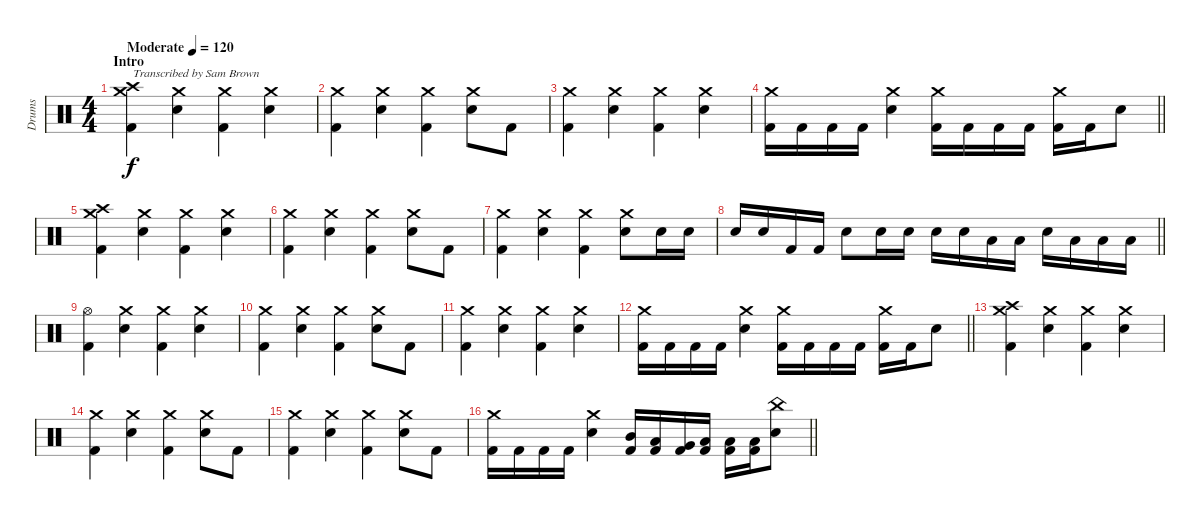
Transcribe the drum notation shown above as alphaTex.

\track ("Drums" "Drums") {instrument percussion}
\staff {score}
\articulation defaults
\ts (4 4)
\section ("" "Intro")
\tempo (120 "Moderate")
\clef neutral
\ks c
("Kick (hit) 2" "Crash medium (hit)" "Crash high (hit)").4{txt "Transcribed by Sam Brown" dy f} ("Snare (hit) 2" "Crash medium (hit)").4 ("Kick (hit) 2" "Crash medium (hit)").4 ("Snare (hit) 2" "Crash medium (hit)").4 |
("Kick (hit) 2" "Crash medium (hit)").4 ("Snare (hit) 2" "Crash medium (hit)").4 ("Kick (hit) 2" "Crash medium (hit)").4 ("Snare (hit) 2" "Crash medium (hit)").8 "Kick (hit) 2".8 |
("Kick (hit) 2" "Crash medium (hit)").4 ("Snare (hit) 2" "Crash medium (hit)").4 ("Kick (hit) 2" "Crash medium (hit)").4 ("Snare (hit) 2" "Crash medium (hit)").4 |
\barLineRight lightlight
("Kick (hit) 2" "Crash medium (hit)").16 "Kick (hit) 2".16 "Kick (hit) 2".16 "Kick (hit) 2".16 ("Snare (hit) 2" "Crash medium (hit)").4 ("Kick (hit) 2" "Crash medium (hit)").16 "Kick (hit) 2".16 "Kick (hit) 2".16 "Kick (hit) 2".16 ("Kick (hit) 2" "Crash medium (hit)").16 "Kick (hit) 2".16 "Snare (hit) 2".8 |
\section ("" "")
("Kick (hit) 2" "Crash medium (hit)" "Crash high (hit)").4 ("Snare (hit) 2" "Crash medium (hit)").4 ("Kick (hit) 2" "Crash medium (hit)").4 ("Snare (hit) 2" "Crash medium (hit)").4 |
("Kick (hit) 2" "Crash medium (hit)").4 ("Snare (hit) 2" "Crash medium (hit)").4 ("Kick (hit) 2" "Crash medium (hit)").4 ("Snare (hit) 2" "Crash medium (hit)").8 "Kick (hit) 2".8 |
("Kick (hit) 2" "Crash medium (hit)").4 ("Snare (hit) 2" "Crash medium (hit)").4 ("Kick (hit) 2" "Crash medium (hit)").4 ("Snare (hit) 2" "Crash medium (hit)").8 "Snare (hit) 2".16 "Snare (hit) 2".16 |
\barLineRight lightlight "Snare (hit) 2".16 "Snare (hit) 2".16 "Kick (hit) 2".16 "Kick (hit) 2".16 "Snare (hit) 2".8 "Snare (hit) 2".16 "Snare (hit) 2".16 "Snare (hit) 2".16 "Snare (hit) 2".16 "Low Tom (hit)".16 "Low Tom (hit)".16 "Snare (hit) 2".16 "Low Floor Tom (hit)".16 "Low Floor Tom (hit)".16 "Low Floor Tom (hit)".16
|
\section ("" "")
("Kick (hit) 2" "Hi-Hat (open)").4 ("Snare (hit) 2" "Crash medium (hit)").4 ("Kick (hit) 2" "Crash medium (hit)").4 ("Snare (hit) 2" "Crash medium (hit)").4 |
("Kick (hit) 2" "Crash medium (hit)").4 ("Snare (hit) 2" "Crash medium (hit)").4 ("Kick (hit) 2" "Crash medium (hit)").4 ("Snare (hit) 2" "Crash medium (hit)").8 "Kick (hit) 2".8 |
("Kick (hit) 2" "Crash medium (hit)").4 ("Snare (hit) 2" "Crash medium (hit)").4 ("Kick (hit) 2" "Crash medium (hit)").4 ("Snare (hit) 2" "Crash medium (hit)").4 |
\barLineRight lightlight
("Kick (hit) 2" "Crash medium (hit)").16 "Kick (hit) 2".16 "Kick (hit) 2".16 "Kick (hit) 2".16 ("Snare (hit) 2" "Crash medium (hit)").4 ("Kick (hit) 2" "Crash medium (hit)").16 "Kick (hit) 2".16 "Kick (hit) 2".16 "Kick (hit) 2".16 ("Kick (hit) 2" "Crash medium (hit)").16 "Kick (hit) 2".16 "Snare (hit) 2".8 |
\section ("" "")
("Kick (hit) 2" "Crash medium (hit)" "Crash high (hit)").4 ("Snare (hit) 2" "Crash medium (hit)").4 ("Kick (hit) 2" "Crash medium (hit)").4 ("Snare (hit) 2" "Crash medium (hit)").4 |
("Kick (hit) 2" "Crash medium (hit)").4 ("Snare (hit) 2" "Crash medium (hit)").4 ("Kick (hit) 2" "Crash medium (hit)").4 ("Snare (hit) 2" "Crash medium (hit)").8 "Kick (hit) 2".8 |
("Kick (hit) 2" "Crash medium (hit)").4 ("Snare (hit) 2" "Crash medium (hit)").4 ("Kick (hit) 2" "Crash medium (hit)").4 ("Snare (hit) 2" "Crash medium (hit)").8 "Kick (hit) 2".8 |
\barLineRight lightlight
("Kick (hit) 2" "Crash medium (hit)").16 "Kick (hit) 2".16 "Kick (hit) 2".16 "Kick (hit) 2".16 ("Snare (hit) 2" "Crash medium (hit)").4 ("Kick (hit) 2" "Mid Tom (hit)").16 ("Kick (hit) 2" "Low Tom (hit)").16 ("Kick (hit) 2" "Very Low Tom (hit)").16 ("Kick (hit) 2" "Low Floor Tom (hit)").16 ("Kick (hit) 2" "Low Floor Tom (hit)").16 ("Kick (hit) 2" "Low Floor Tom (hit)").16 ("Snare (hit) 2" "China (hit)").8
